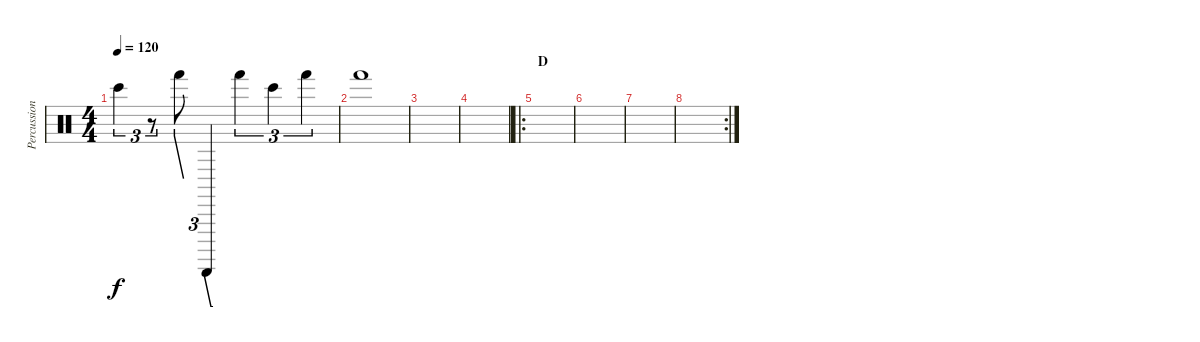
\track ("Percussion" "Percussion") {instrument percussion}
\staff {score}
\articulation defaults
\ts (4 4)
\tempo 120
\clef neutral
\ks c "Bongo High (hit)".4{tu (3 2) dy f}
r.8{tu (3 2)} "Hand (hit)".8{tu (3 2)} "Guiro (scrap-return)".4{tu (3 2)} "Hand (hit)".4{tu (3 2)} "Bongo High (hit)".4{tu (3 2)} "Hand (hit)".4{tu (3 2)} |
"Hand (hit)".1 |
|
|
\ro
\section ("" "D")
|
|
|
\rc 2
